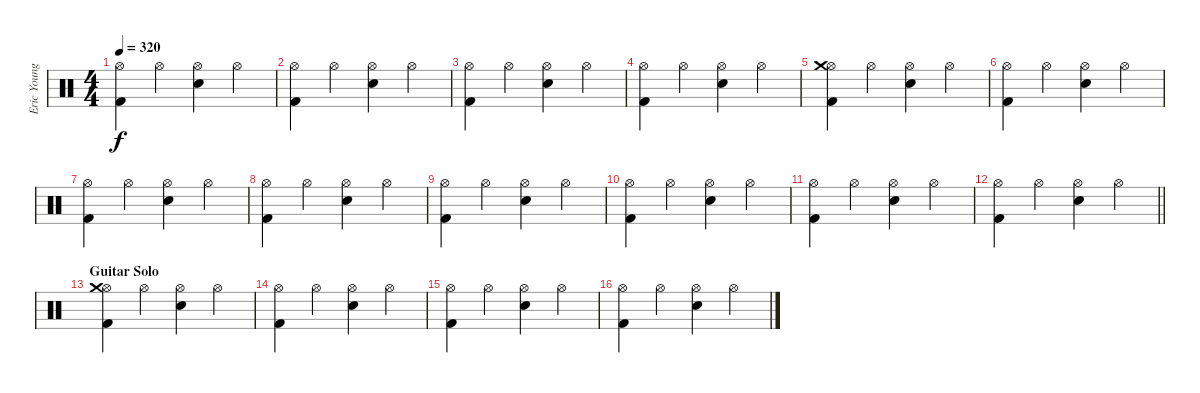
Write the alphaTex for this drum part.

\track ("Eric Young (Drums)" "Eric Young") {instrument percussion}
\staff {score}
\articulation defaults
\ts (4 4)
\tempo 320
\clef neutral
\ks c
("Hi-Hat (open)" "Kick (hit) 2").4{dy f} "Hi-Hat (open)".4 ("Hi-Hat (open)" "Snare (hit) 2").4 "Hi-Hat (open)".4 |
("Hi-Hat (open)" "Kick (hit) 2").4 "Hi-Hat (open)".4 ("Hi-Hat (open)" "Snare (hit) 2").4 "Hi-Hat (open)".4 |
("Hi-Hat (open)" "Kick (hit) 2").4 "Hi-Hat (open)".4 ("Hi-Hat (open)" "Snare (hit) 2").4 "Hi-Hat (open)".4 |
("Hi-Hat (open)" "Kick (hit) 2").4 "Hi-Hat (open)".4 ("Hi-Hat (open)" "Snare (hit) 2").4 "Hi-Hat (open)".4 |
("Hi-Hat (open)" "Kick (hit) 2" "Crash medium (hit)").4 "Hi-Hat (open)".4 ("Hi-Hat (open)" "Snare (hit) 2").4 "Hi-Hat (open)".4 |
("Hi-Hat (open)" "Kick (hit) 2").4 "Hi-Hat (open)".4 ("Hi-Hat (open)" "Snare (hit) 2").4 "Hi-Hat (open)".4 |
("Hi-Hat (open)" "Kick (hit) 2").4 "Hi-Hat (open)".4 ("Hi-Hat (open)" "Snare (hit) 2").4 "Hi-Hat (open)".4 |
("Hi-Hat (open)" "Kick (hit) 2").4 "Hi-Hat (open)".4 ("Hi-Hat (open)" "Snare (hit) 2").4 "Hi-Hat (open)".4 |
("Hi-Hat (open)" "Kick (hit) 2").4 "Hi-Hat (open)".4 ("Hi-Hat (open)" "Snare (hit) 2").4 "Hi-Hat (open)".4 |
("Hi-Hat (open)" "Kick (hit) 2").4 "Hi-Hat (open)".4 ("Hi-Hat (open)" "Snare (hit) 2").4 "Hi-Hat (open)".4 |
("Hi-Hat (open)" "Kick (hit) 2").4 "Hi-Hat (open)".4 ("Hi-Hat (open)" "Snare (hit) 2").4 "Hi-Hat (open)".4 |
\barLineRight lightlight
("Hi-Hat (open)" "Kick (hit) 2").4 "Hi-Hat (open)".4 ("Hi-Hat (open)" "Snare (hit) 2").4 "Hi-Hat (open)".4 |
\section ("" "Guitar Solo")
("Hi-Hat (open)" "Kick (hit) 2" "Crash medium (hit)").4 "Hi-Hat (open)".4 ("Hi-Hat (open)" "Snare (hit) 2").4 "Hi-Hat (open)".4 |
("Hi-Hat (open)" "Kick (hit) 2").4 "Hi-Hat (open)".4 ("Hi-Hat (open)" "Snare (hit) 2").4 "Hi-Hat (open)".4 |
("Hi-Hat (open)" "Kick (hit) 2").4 "Hi-Hat (open)".4 ("Hi-Hat (open)" "Snare (hit) 2").4 "Hi-Hat (open)".4 |
("Hi-Hat (open)" "Kick (hit) 2").4 "Hi-Hat (open)".4 ("Hi-Hat (open)" "Snare (hit) 2").4 "Hi-Hat (open)".4
